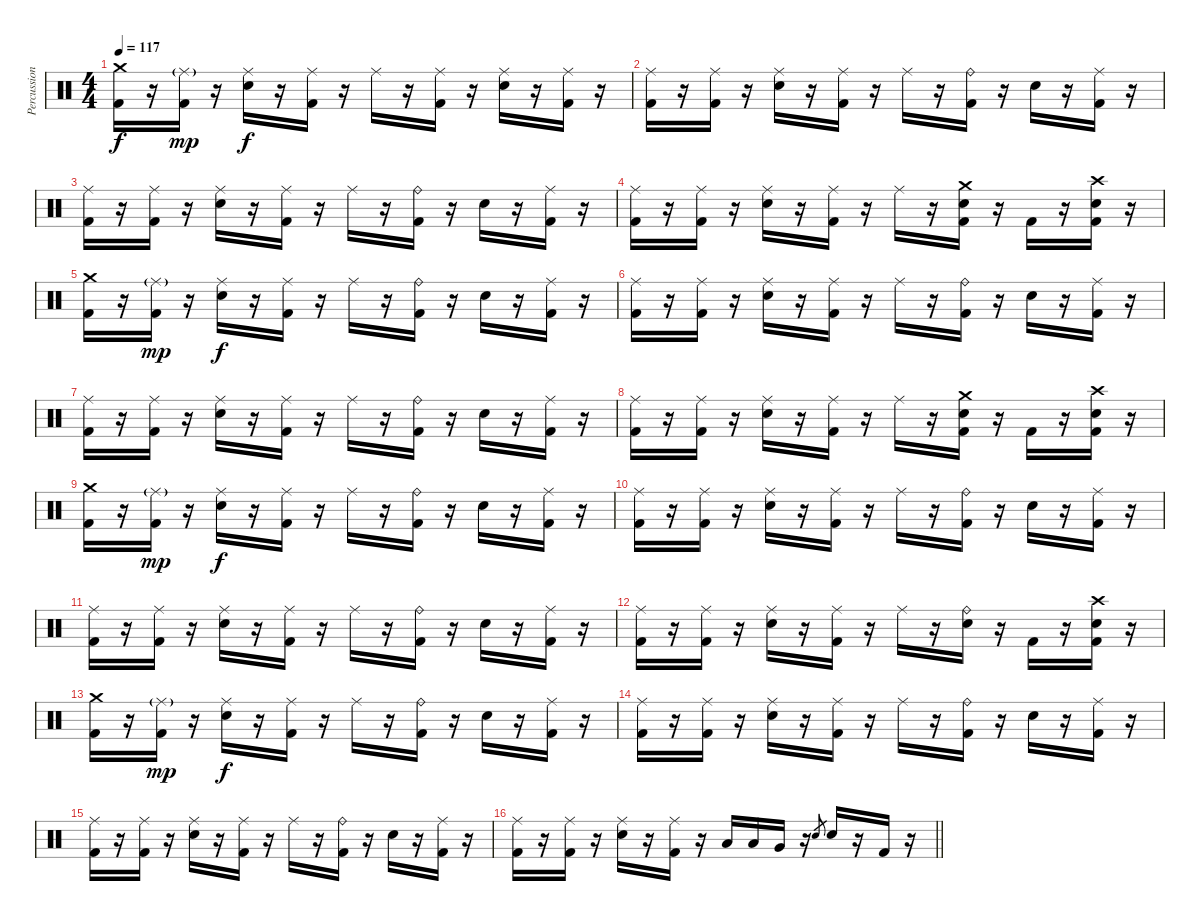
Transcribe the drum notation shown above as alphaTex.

\track ("Percussion" "Percussion") {instrument percussion}
\staff {score}
\articulation defaults
\ts (4 4)
\section ("" "")
\tempo 117
\clef neutral
\ks c
("Crash medium (hit)" "Kick (hit) 2").16{dy f} r.16 ("Ride (middle)"{g} "Kick (hit) 2").16{dy mp} r.16 ("Ride (middle)" "Electric Snare (hit)").16{dy f} r.16 ("Ride (middle)" "Kick (hit) 2").16 r.16 "Ride (middle)".16 r.16 ("Ride (middle)" "Kick (hit) 2").16 r.16 ("Ride (middle)" "Electric Snare (hit)").16 r.16 ("Ride (middle)" "Kick (hit) 2").16 r.16 |
("Ride (middle)" "Kick (hit) 2").16 r.16 ("Ride (middle)" "Kick (hit) 2").16 r.16 ("Ride (middle)" "Electric Snare (hit)").16 r.16 ("Ride (middle)" "Kick (hit) 2").16 r.16 "Ride (middle)".16 r.16 ("Ride (bell)" "Kick (hit) 2").16 r.16 "Electric Snare (hit)".16 r.16 ("Ride (middle)" "Kick (hit) 2").16 r.16 |
("Ride (middle)" "Kick (hit) 2").16 r.16 ("Ride (middle)" "Kick (hit) 2").16 r.16 ("Ride (middle)" "Electric Snare (hit)").16 r.16 ("Ride (middle)" "Kick (hit) 2").16 r.16 "Ride (middle)".16 r.16 ("Ride (bell)" "Kick (hit) 2").16 r.16 "Electric Snare (hit)".16 r.16 ("Ride (middle)" "Kick (hit) 2").16 r.16 |
("Ride (middle)" "Kick (hit) 2").16 r.16 ("Ride (middle)" "Kick (hit) 2").16 r.16 ("Ride (middle)" "Electric Snare (hit)").16 r.16 ("Ride (middle)" "Kick (hit) 2").16 r.16 "Ride (middle)".16 r.16 ("Crash medium (hit)" "Electric Snare (hit)" "Kick (hit) 2").16 r.16 "Kick (hit) 2".16 r.16 ("Crash high (hit)" "Electric Snare (hit)" "Kick (hit) 2").16 r.16 |
("Crash medium (hit)" "Kick (hit) 2").16 r.16 ("Ride (middle)"{g} "Kick (hit) 2").16{dy mp} r.16 ("Ride (middle)" "Electric Snare (hit)").16{dy f} r.16 ("Ride (middle)" "Kick (hit) 2").16 r.16 "Ride (middle)".16 r.16 ("Ride (bell)" "Kick (hit) 2").16 r.16 "Electric Snare (hit)".16 r.16 ("Ride (middle)" "Kick (hit) 2").16 r.16 |
("Ride (middle)" "Kick (hit) 2").16 r.16 ("Ride (middle)" "Kick (hit) 2").16 r.16 ("Ride (middle)" "Electric Snare (hit)").16 r.16 ("Ride (middle)" "Kick (hit) 2").16 r.16 "Ride (middle)".16 r.16 ("Ride (bell)" "Kick (hit) 2").16 r.16 "Electric Snare (hit)".16 r.16 ("Ride (middle)" "Kick (hit) 2").16 r.16 |
("Ride (middle)" "Kick (hit) 2").16 r.16 ("Ride (middle)" "Kick (hit) 2").16 r.16 ("Ride (middle)" "Electric Snare (hit)").16 r.16 ("Ride (middle)" "Kick (hit) 2").16 r.16 "Ride (middle)".16 r.16 ("Ride (bell)" "Kick (hit) 2").16 r.16 "Electric Snare (hit)".16 r.16 ("Ride (middle)" "Kick (hit) 2").16 r.16 |
("Ride (middle)" "Kick (hit) 2").16 r.16 ("Ride (middle)" "Kick (hit) 2").16 r.16 ("Ride (middle)" "Electric Snare (hit)").16 r.16 ("Ride (middle)" "Kick (hit) 2").16 r.16 "Ride (middle)".16 r.16 ("Crash medium (hit)" "Electric Snare (hit)" "Kick (hit) 2").16 r.16 "Kick (hit) 2".16 r.16 ("Crash high (hit)" "Electric Snare (hit)" "Kick (hit) 2").16 r.16 |
("Crash medium (hit)" "Kick (hit) 2").16 r.16 ("Ride (middle)"{g} "Kick (hit) 2").16{dy mp} r.16 ("Ride (middle)" "Electric Snare (hit)").16{dy f} r.16 ("Ride (middle)" "Kick (hit) 2").16 r.16 "Ride (middle)".16 r.16 ("Ride (bell)" "Kick (hit) 2").16 r.16 "Electric Snare (hit)".16 r.16 ("Ride (middle)" "Kick (hit) 2").16 r.16 |
("Ride (middle)" "Kick (hit) 2").16 r.16 ("Ride (middle)" "Kick (hit) 2").16 r.16 ("Ride (middle)" "Electric Snare (hit)").16 r.16 ("Ride (middle)" "Kick (hit) 2").16 r.16 "Ride (middle)".16 r.16 ("Ride (bell)" "Kick (hit) 2").16 r.16 "Electric Snare (hit)".16 r.16 ("Ride (middle)" "Kick (hit) 2").16 r.16 |
("Ride (middle)" "Kick (hit) 2").16 r.16 ("Ride (middle)" "Kick (hit) 2").16 r.16 ("Ride (middle)" "Electric Snare (hit)").16 r.16 ("Ride (middle)" "Kick (hit) 2").16 r.16 "Ride (middle)".16 r.16 ("Ride (bell)" "Kick (hit) 2").16 r.16 "Electric Snare (hit)".16 r.16 ("Ride (middle)" "Kick (hit) 2").16 r.16 |
("Ride (middle)" "Kick (hit) 2").16 r.16 ("Ride (middle)" "Kick (hit) 2").16 r.16 ("Ride (middle)" "Electric Snare (hit)").16 r.16 ("Ride (middle)" "Kick (hit) 2").16 r.16 "Ride (middle)".16 r.16 ("Ride (bell)" "Electric Snare (hit)").16 r.16 "Kick (hit) 2".16 r.16 ("Crash high (hit)" "Electric Snare (hit)" "Kick (hit) 2").16 r.16 |
("Crash medium (hit)" "Kick (hit) 2").16 r.16 ("Ride (middle)"{g} "Kick (hit) 2").16{dy mp} r.16 ("Ride (middle)" "Electric Snare (hit)").16{dy f} r.16 ("Ride (middle)" "Kick (hit) 2").16 r.16 "Ride (middle)".16 r.16 ("Ride (bell)" "Kick (hit) 2").16 r.16 "Electric Snare (hit)".16 r.16 ("Ride (middle)" "Kick (hit) 2").16 r.16 |
("Ride (middle)" "Kick (hit) 2").16 r.16 ("Ride (middle)" "Kick (hit) 2").16 r.16 ("Ride (middle)" "Electric Snare (hit)").16 r.16 ("Ride (middle)" "Kick (hit) 2").16 r.16 "Ride (middle)".16 r.16 ("Ride (bell)" "Kick (hit) 2").16 r.16 "Electric Snare (hit)".16 r.16 ("Ride (middle)" "Kick (hit) 2").16 r.16 |
("Ride (middle)" "Kick (hit) 2").16 r.16 ("Ride (middle)" "Kick (hit) 2").16 r.16 ("Ride (middle)" "Electric Snare (hit)").16 r.16 ("Ride (middle)" "Kick (hit) 2").16 r.16 "Ride (middle)".16 r.16 ("Ride (bell)" "Kick (hit) 2").16 r.16 "Electric Snare (hit)".16 r.16 ("Ride (middle)" "Kick (hit) 2").16 r.16 |
\barLineRight lightlight
("Ride (middle)" "Kick (hit) 2").16 r.16 ("Ride (middle)" "Kick (hit) 2").16 r.16 ("Ride (middle)" "Electric Snare (hit)").16 r.16 ("Ride (middle)" "Kick (hit) 2").16 r.16 "Low Tom (hit)".16 "Low Tom (hit)".16 "Very Low Tom (hit)".16 r.16 "Electric Snare (hit)".8{gr} "Electric Snare (hit)".16 r.16 "Kick (hit) 2".16 r.16
